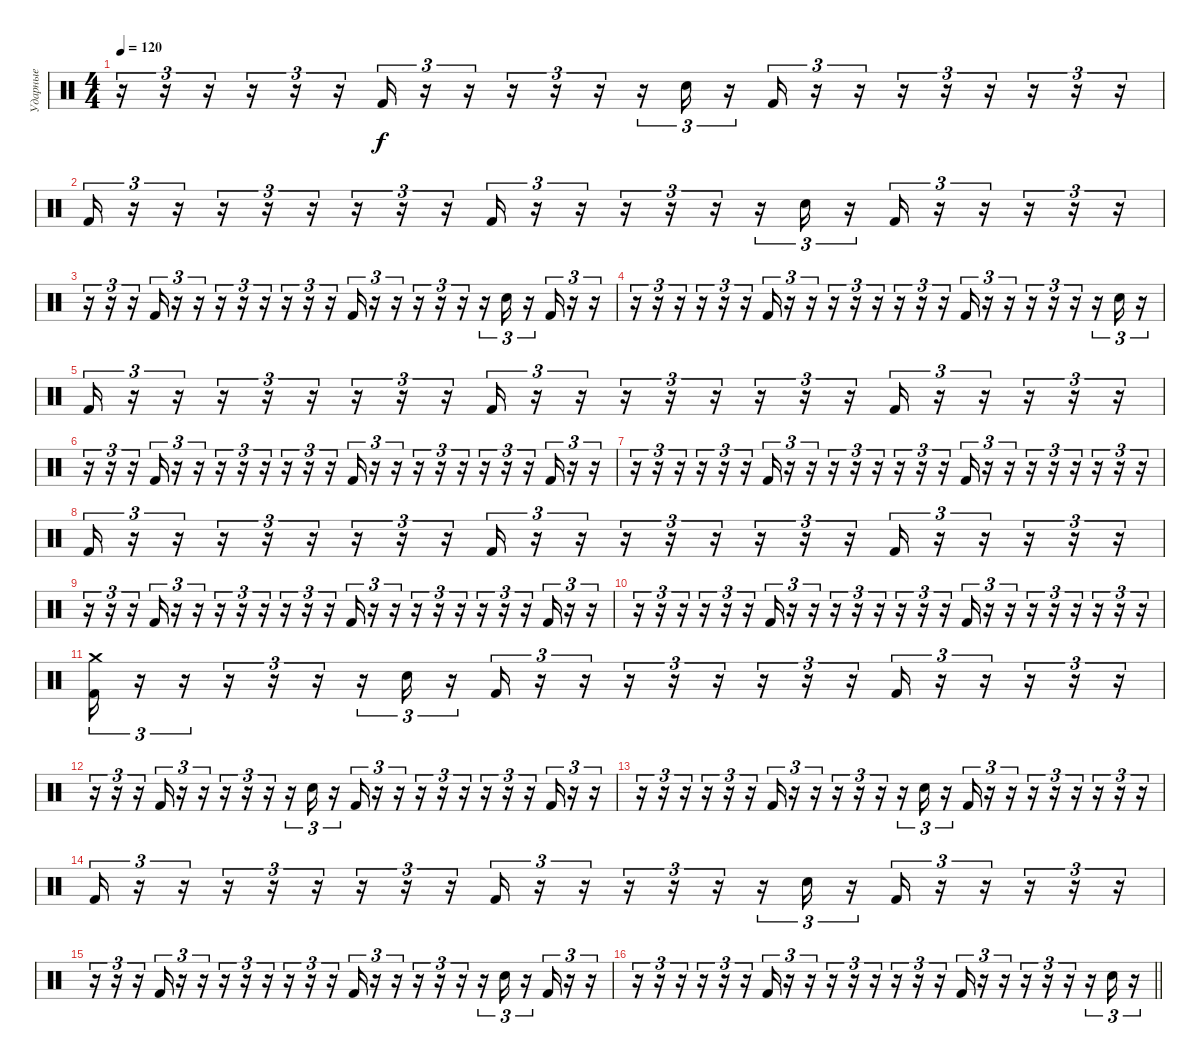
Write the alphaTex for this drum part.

\track ("Ударные" "Ударные") {instrument percussion}
\staff {score}
\articulation defaults
\ts (4 4)
\tempo 120
\clef neutral
\ks c
r.16{tu (3 2) dy f} r.16{tu (3 2)} r.16{tu (3 2)} r.16{tu (3 2)} r.16{tu (3 2)} r.16{tu (3 2)} "Kick (hit) 2".16{tu (3 2)} r.16{tu (3 2)} r.16{tu (3 2)} r.16{tu (3 2)} r.16{tu (3 2)} r.16{tu (3 2)} r.16{tu (3 2)} "Snare (hit) 2".16{tu (3 2)} r.16{tu (3 2)} "Kick (hit) 2".16{tu (3 2)} r.16{tu (3 2)} r.16{tu (3 2)} r.16{tu (3 2)} r.16{tu (3 2)} r.16{tu (3 2)} r.16{tu (3 2)} r.16{tu (3 2)} r.16{tu (3 2)} |
"Kick (hit) 2".16{tu (3 2)} r.16{tu (3 2)} r.16{tu (3 2)} r.16{tu (3 2)} r.16{tu (3 2)} r.16{tu (3 2)} r.16{tu (3 2)} r.16{tu (3 2)} r.16{tu (3 2)} "Kick (hit) 2".16{tu (3 2)} r.16{tu (3 2)} r.16{tu (3 2)} r.16{tu (3 2)} r.16{tu (3 2)} r.16{tu (3 2)} r.16{tu (3 2)} "Snare (hit) 2".16{tu (3 2)} r.16{tu (3 2)} "Kick (hit) 2".16{tu (3 2)} r.16{tu (3 2)} r.16{tu (3 2)} r.16{tu (3 2)} r.16{tu (3 2)} r.16{tu (3 2)} |
r.16{tu (3 2)} r.16{tu (3 2)} r.16{tu (3 2)} "Kick (hit) 2".16{tu (3 2)} r.16{tu (3 2)} r.16{tu (3 2)} r.16{tu (3 2)} r.16{tu (3 2)} r.16{tu (3 2)} r.16{tu (3 2)} r.16{tu (3 2)} r.16{tu (3 2)} "Kick (hit) 2".16{tu (3 2)} r.16{tu (3 2)} r.16{tu (3 2)} r.16{tu (3 2)} r.16{tu (3 2)} r.16{tu (3 2)} r.16{tu (3 2)} "Snare (hit) 2".16{tu (3 2)} r.16{tu (3 2)} "Kick (hit) 2".16{tu (3 2)} r.16{tu (3 2)} r.16{tu (3 2)} |
r.16{tu (3 2)} r.16{tu (3 2)} r.16{tu (3 2)} r.16{tu (3 2)} r.16{tu (3 2)} r.16{tu (3 2)} "Kick (hit) 2".16{tu (3 2)} r.16{tu (3 2)} r.16{tu (3 2)} r.16{tu (3 2)} r.16{tu (3 2)} r.16{tu (3 2)} r.16{tu (3 2)} r.16{tu (3 2)} r.16{tu (3 2)} "Kick (hit) 2".16{tu (3 2)} r.16{tu (3 2)} r.16{tu (3 2)} r.16{tu (3 2)} r.16{tu (3 2)} r.16{tu (3 2)} r.16{tu (3 2)} "Snare (hit) 2".16{tu (3 2)} r.16{tu (3 2)} |
"Kick (hit) 2".16{tu (3 2)} r.16{tu (3 2)} r.16{tu (3 2)} r.16{tu (3 2)} r.16{tu (3 2)} r.16{tu (3 2)} r.16{tu (3 2)} r.16{tu (3 2)} r.16{tu (3 2)} "Kick (hit) 2".16{tu (3 2)} r.16{tu (3 2)} r.16{tu (3 2)} r.16{tu (3 2)} r.16{tu (3 2)} r.16{tu (3 2)} r.16{tu (3 2)} r.16{tu (3 2)} r.16{tu (3 2)} "Kick (hit) 2".16{tu (3 2)} r.16{tu (3 2)} r.16{tu (3 2)} r.16{tu (3 2)} r.16{tu (3 2)} r.16{tu (3 2)} |
r.16{tu (3 2)} r.16{tu (3 2)} r.16{tu (3 2)} "Kick (hit) 2".16{tu (3 2)} r.16{tu (3 2)} r.16{tu (3 2)} r.16{tu (3 2)} r.16{tu (3 2)} r.16{tu (3 2)} r.16{tu (3 2)} r.16{tu (3 2)} r.16{tu (3 2)} "Kick (hit) 2".16{tu (3 2)} r.16{tu (3 2)} r.16{tu (3 2)} r.16{tu (3 2)} r.16{tu (3 2)} r.16{tu (3 2)} r.16{tu (3 2)} r.16{tu (3 2)} r.16{tu (3 2)} "Kick (hit) 2".16{tu (3 2)} r.16{tu (3 2)} r.16{tu (3 2)} |
r.16{tu (3 2)} r.16{tu (3 2)} r.16{tu (3 2)} r.16{tu (3 2)} r.16{tu (3 2)} r.16{tu (3 2)} "Kick (hit) 2".16{tu (3 2)} r.16{tu (3 2)} r.16{tu (3 2)} r.16{tu (3 2)} r.16{tu (3 2)} r.16{tu (3 2)} r.16{tu (3 2)} r.16{tu (3 2)} r.16{tu (3 2)} "Kick (hit) 2".16{tu (3 2)} r.16{tu (3 2)} r.16{tu (3 2)} r.16{tu (3 2)} r.16{tu (3 2)} r.16{tu (3 2)} r.16{tu (3 2)} r.16{tu (3 2)} r.16{tu (3 2)} |
"Kick (hit) 2".16{tu (3 2)} r.16{tu (3 2)} r.16{tu (3 2)} r.16{tu (3 2)} r.16{tu (3 2)} r.16{tu (3 2)} r.16{tu (3 2)} r.16{tu (3 2)} r.16{tu (3 2)} "Kick (hit) 2".16{tu (3 2)} r.16{tu (3 2)} r.16{tu (3 2)} r.16{tu (3 2)} r.16{tu (3 2)} r.16{tu (3 2)} r.16{tu (3 2)} r.16{tu (3 2)} r.16{tu (3 2)} "Kick (hit) 2".16{tu (3 2)} r.16{tu (3 2)} r.16{tu (3 2)} r.16{tu (3 2)} r.16{tu (3 2)} r.16{tu (3 2)} |
r.16{tu (3 2)} r.16{tu (3 2)} r.16{tu (3 2)} "Kick (hit) 2".16{tu (3 2)} r.16{tu (3 2)} r.16{tu (3 2)} r.16{tu (3 2)} r.16{tu (3 2)} r.16{tu (3 2)} r.16{tu (3 2)} r.16{tu (3 2)} r.16{tu (3 2)} "Kick (hit) 2".16{tu (3 2)} r.16{tu (3 2)} r.16{tu (3 2)} r.16{tu (3 2)} r.16{tu (3 2)} r.16{tu (3 2)} r.16{tu (3 2)} r.16{tu (3 2)} r.16{tu (3 2)} "Kick (hit) 2".16{tu (3 2)} r.16{tu (3 2)} r.16{tu (3 2)} |
r.16{tu (3 2)} r.16{tu (3 2)} r.16{tu (3 2)} r.16{tu (3 2)} r.16{tu (3 2)} r.16{tu (3 2)} "Kick (hit) 2".16{tu (3 2)} r.16{tu (3 2)} r.16{tu (3 2)} r.16{tu (3 2)} r.16{tu (3 2)} r.16{tu (3 2)} r.16{tu (3 2)} r.16{tu (3 2)} r.16{tu (3 2)} "Kick (hit) 2".16{tu (3 2)} r.16{tu (3 2)} r.16{tu (3 2)} r.16{tu (3 2)} r.16{tu (3 2)} r.16{tu (3 2)} r.16{tu (3 2)} r.16{tu (3 2)} r.16{tu (3 2)} |
("Crash medium (hit)" "Kick (hit) 2").16{tu (3 2)} r.16{tu (3 2)} r.16{tu (3 2)} r.16{tu (3 2)} r.16{tu (3 2)} r.16{tu (3 2)} r.16{tu (3 2)} "Snare (hit) 2".16{tu (3 2)} r.16{tu (3 2)} "Kick (hit) 2".16{tu (3 2)} r.16{tu (3 2)} r.16{tu (3 2)} r.16{tu (3 2)} r.16{tu (3 2)} r.16{tu (3 2)} r.16{tu (3 2)} r.16{tu (3 2)} r.16{tu (3 2)} "Kick (hit) 2".16{tu (3 2)} r.16{tu (3 2)} r.16{tu (3 2)} r.16{tu (3 2)} r.16{tu (3 2)} r.16{tu (3 2)} |
r.16{tu (3 2)} r.16{tu (3 2)} r.16{tu (3 2)} "Kick (hit) 2".16{tu (3 2)} r.16{tu (3 2)} r.16{tu (3 2)} r.16{tu (3 2)} r.16{tu (3 2)} r.16{tu (3 2)} r.16{tu (3 2)} "Snare (hit) 2".16{tu (3 2)} r.16{tu (3 2)} "Kick (hit) 2".16{tu (3 2)} r.16{tu (3 2)} r.16{tu (3 2)} r.16{tu (3 2)} r.16{tu (3 2)} r.16{tu (3 2)} r.16{tu (3 2)} r.16{tu (3 2)} r.16{tu (3 2)} "Kick (hit) 2".16{tu (3 2)} r.16{tu (3 2)} r.16{tu (3 2)} |
r.16{tu (3 2)} r.16{tu (3 2)} r.16{tu (3 2)} r.16{tu (3 2)} r.16{tu (3 2)} r.16{tu (3 2)} "Kick (hit) 2".16{tu (3 2)} r.16{tu (3 2)} r.16{tu (3 2)} r.16{tu (3 2)} r.16{tu (3 2)} r.16{tu (3 2)} r.16{tu (3 2)} "Snare (hit) 2".16{tu (3 2)} r.16{tu (3 2)} "Kick (hit) 2".16{tu (3 2)} r.16{tu (3 2)} r.16{tu (3 2)} r.16{tu (3 2)} r.16{tu (3 2)} r.16{tu (3 2)} r.16{tu (3 2)} r.16{tu (3 2)} r.16{tu (3 2)} |
"Kick (hit) 2".16{tu (3 2)} r.16{tu (3 2)} r.16{tu (3 2)} r.16{tu (3 2)} r.16{tu (3 2)} r.16{tu (3 2)} r.16{tu (3 2)} r.16{tu (3 2)} r.16{tu (3 2)} "Kick (hit) 2".16{tu (3 2)} r.16{tu (3 2)} r.16{tu (3 2)} r.16{tu (3 2)} r.16{tu (3 2)} r.16{tu (3 2)} r.16{tu (3 2)} "Snare (hit) 2".16{tu (3 2)} r.16{tu (3 2)} "Kick (hit) 2".16{tu (3 2)} r.16{tu (3 2)} r.16{tu (3 2)} r.16{tu (3 2)} r.16{tu (3 2)} r.16{tu (3 2)} |
r.16{tu (3 2)} r.16{tu (3 2)} r.16{tu (3 2)} "Kick (hit) 2".16{tu (3 2)} r.16{tu (3 2)} r.16{tu (3 2)} r.16{tu (3 2)} r.16{tu (3 2)} r.16{tu (3 2)} r.16{tu (3 2)} r.16{tu (3 2)} r.16{tu (3 2)} "Kick (hit) 2".16{tu (3 2)} r.16{tu (3 2)} r.16{tu (3 2)} r.16{tu (3 2)} r.16{tu (3 2)} r.16{tu (3 2)} r.16{tu (3 2)} "Snare (hit) 2".16{tu (3 2)} r.16{tu (3 2)} "Kick (hit) 2".16{tu (3 2)} r.16{tu (3 2)} r.16{tu (3 2)} |
\barLineRight lightlight
r.16{tu (3 2)} r.16{tu (3 2)} r.16{tu (3 2)} r.16{tu (3 2)} r.16{tu (3 2)} r.16{tu (3 2)} "Kick (hit) 2".16{tu (3 2)} r.16{tu (3 2)} r.16{tu (3 2)} r.16{tu (3 2)} r.16{tu (3 2)} r.16{tu (3 2)} r.16{tu (3 2)} r.16{tu (3 2)} r.16{tu (3 2)} "Kick (hit) 2".16{tu (3 2)} r.16{tu (3 2)} r.16{tu (3 2)} r.16{tu (3 2)} r.16{tu (3 2)} r.16{tu (3 2)} r.16{tu (3 2)} "Snare (hit) 2".16{tu (3 2)} r.16{tu (3 2)}
